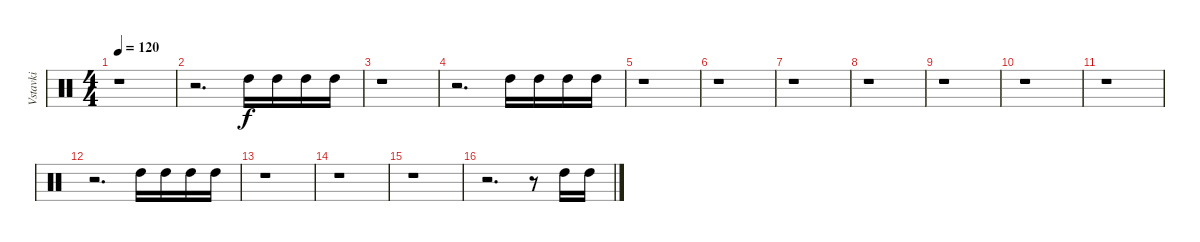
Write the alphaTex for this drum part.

\track ("Vstavki" "Vstavki") {instrument percussion}
\staff {score}
\articulation defaults
\ts (4 4)
\tempo 120
\clef neutral
\ks c
r.1{dy f} |
r.2{d} "High Tom (hit)".16 "High Tom (hit)".16 "High Tom (hit)".16 "High Tom (hit)".16 |
r.1 |
r.2{d} "High Tom (hit)".16 "High Tom (hit)".16 "High Tom (hit)".16 "High Tom (hit)".16 |
r.1 |
r.1 |
r.1 |
r.1 |
r.1 |
r.1 |
r.1 |
r.2{d} "High Tom (hit)".16 "High Tom (hit)".16 "High Tom (hit)".16 "High Tom (hit)".16 |
r.1 |
r.1 |
r.1 |
r.2{d} r.8 "High Tom (hit)".16 "High Tom (hit)".16
